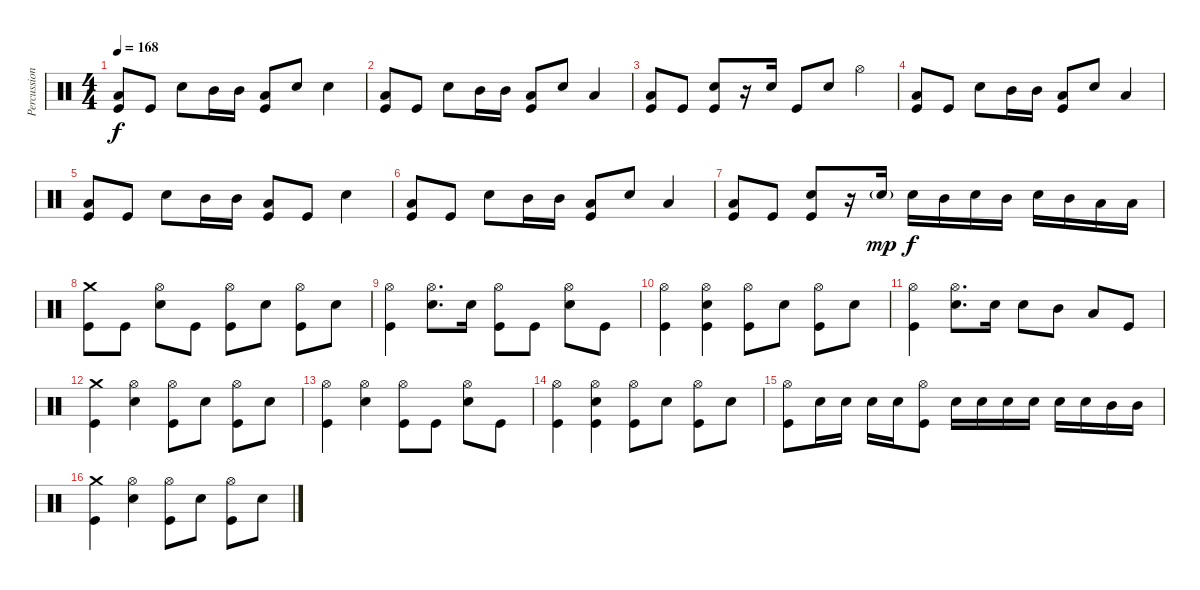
\track ("Percussion" "Percussion") {instrument percussion}
\staff {score}
\articulation defaults
\ts (4 4)
\tempo 168
\clef neutral
\ks c
("Low Tom (hit)" "Kick (hit)").8{dy f} "Kick (hit)".8 "Electric Snare (hit)".8 "Mid Tom (hit)".16 "Mid Tom (hit)".16 ("Low Tom (hit)" "Kick (hit)").8 "Electric Snare (hit)".8 "Electric Snare (hit)".4 |
("Low Tom (hit)" "Kick (hit)").8 "Kick (hit)".8 "Electric Snare (hit)".8 "Mid Tom (hit)".16 "Mid Tom (hit)".16 ("Low Tom (hit)" "Kick (hit)").8 "Electric Snare (hit)".8 "Low Tom (hit)".4 |
("Low Tom (hit)" "Kick (hit)").8 "Kick (hit)".8 ("Electric Snare (hit)" "Kick (hit)").8 r.16 "Electric Snare (hit)".16 "Kick (hit)".8 "Electric Snare (hit)".8 "Hi-Hat (open)".4 |
("Low Tom (hit)" "Kick (hit)").8 "Kick (hit)".8 "Electric Snare (hit)".8 "Mid Tom (hit)".16 "Mid Tom (hit)".16 ("Low Tom (hit)" "Kick (hit)").8 "Electric Snare (hit)".8 "Low Tom (hit)".4 |
("Low Tom (hit)" "Kick (hit)").8 "Kick (hit)".8 "Electric Snare (hit)".8 "Mid Tom (hit)".16 "Mid Tom (hit)".16 ("Low Tom (hit)" "Kick (hit)").8 "Kick (hit)".8 "Electric Snare (hit)".4 |
("Low Tom (hit)" "Kick (hit)").8 "Kick (hit)".8 "Electric Snare (hit)".8 "Mid Tom (hit)".16 "Mid Tom (hit)".16 ("Low Tom (hit)" "Kick (hit)").8 "Electric Snare (hit)".8 "Low Tom (hit)".4 |
("Low Tom (hit)" "Kick (hit)").8 "Kick (hit)".8 ("Electric Snare (hit)" "Kick (hit)").8 r.16 "Electric Snare (hit)"{g}.16{dy mp} "Electric Snare (hit)".16{dy f} "Mid Tom (hit)".16 "Electric Snare (hit)".16 "Mid Tom (hit)".16 "Electric Snare (hit)".16 "Mid Tom (hit)".16 "Low Tom (hit)".16 "Low Tom (hit)".16 |
("Crash medium (hit)" "Kick (hit)").8 "Kick (hit)".8 ("Hi-Hat (open)" "Electric Snare (hit)").8 "Kick (hit)".8 ("Hi-Hat (open)" "Kick (hit)").8 "Electric Snare (hit)".8 ("Hi-Hat (open)" "Kick (hit)").8 "Electric Snare (hit)".8 |
("Hi-Hat (open)" "Kick (hit)").4 ("Hi-Hat (open)" "Electric Snare (hit)").8{d} "Electric Snare (hit)".16 ("Hi-Hat (open)" "Kick (hit)").8 "Kick (hit)".8 ("Hi-Hat (open)" "Electric Snare (hit)").8 "Kick (hit)".8 |
("Hi-Hat (open)" "Kick (hit)").4 ("Hi-Hat (open)" "Electric Snare (hit)" "Kick (hit)").4 ("Hi-Hat (open)" "Kick (hit)").8 "Electric Snare (hit)".8 ("Hi-Hat (open)" "Kick (hit)").8 "Electric Snare (hit)".8 |
("Hi-Hat (open)" "Kick (hit)").4 ("Hi-Hat (open)" "Electric Snare (hit)").8{d} "Electric Snare (hit)".16 "Electric Snare (hit)".8 "Mid Tom (hit)".8 "Low Tom (hit)".8 "Kick (hit)".8 |
("Crash medium (hit)" "Kick (hit)").4 ("Hi-Hat (open)" "Electric Snare (hit)").4 ("Hi-Hat (open)" "Kick (hit)").8 "Electric Snare (hit)".8 ("Hi-Hat (open)" "Kick (hit)").8 "Electric Snare (hit)".8 |
("Hi-Hat (open)" "Kick (hit)").4 ("Hi-Hat (open)" "Electric Snare (hit)").4 ("Hi-Hat (open)" "Kick (hit)").8 "Kick (hit)".8 ("Hi-Hat (open)" "Electric Snare (hit)").8 "Kick (hit)".8 |
("Hi-Hat (open)" "Kick (hit)").4 ("Hi-Hat (open)" "Electric Snare (hit)" "Kick (hit)").4 ("Hi-Hat (open)" "Kick (hit)").8 "Electric Snare (hit)".8 ("Hi-Hat (open)" "Kick (hit)").8 "Electric Snare (hit)".8 |
("Hi-Hat (open)" "Kick (hit)").8 "Electric Snare (hit)".16 "Electric Snare (hit)".16 "Electric Snare (hit)".16 "Electric Snare (hit)".16 ("Hi-Hat (open)" "Kick (hit)").8 "Electric Snare (hit)".16 "Electric Snare (hit)".16 "Electric Snare (hit)".16 "Electric Snare (hit)".16 "Electric Snare (hit)".16 "Electric Snare (hit)".16 "Mid Tom (hit)".16 "Mid Tom (hit)".16 |
("Crash medium (hit)" "Kick (hit)").4 ("Hi-Hat (open)" "Electric Snare (hit)").4 ("Hi-Hat (open)" "Kick (hit)").8 "Electric Snare (hit)".8 ("Hi-Hat (open)" "Kick (hit)").8 "Electric Snare (hit)".8
